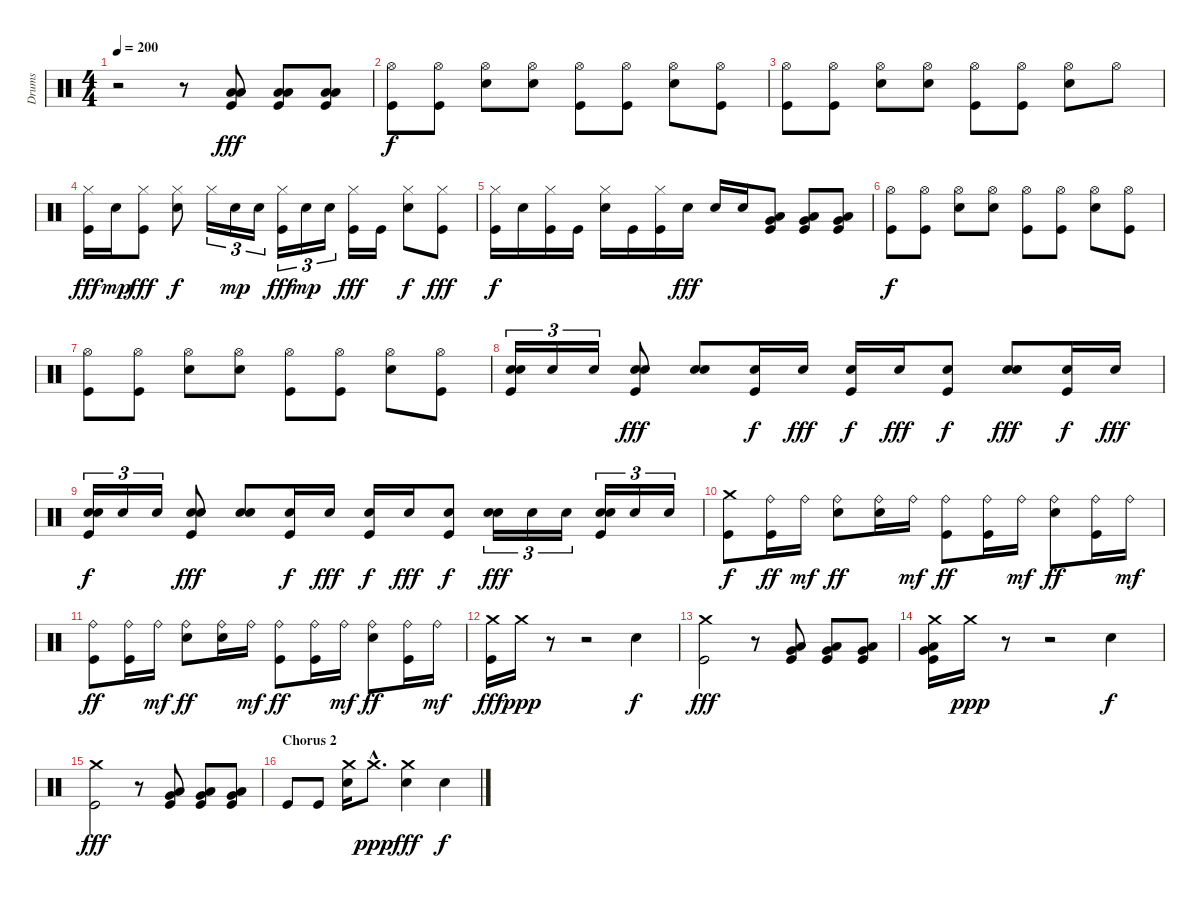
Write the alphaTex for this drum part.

\track ("Drums" "Drums") {instrument percussion}
\staff {score}
\articulation defaults
\ts (4 4)
\tempo 200
\clef neutral
\ks c
r.2{dy fff} r.8 ("Low Tom (hit)" "Low Floor Tom (hit)" "Kick (hit)").8 ("Low Tom (hit)" "Low Floor Tom (hit)" "Kick (hit)").8 ("Low Tom (hit)" "Low Floor Tom (hit)" "Kick (hit)").8 |
("Hi-Hat (open)" "Kick (hit)").8{dy f} ("Hi-Hat (open)" "Kick (hit)").8 ("Hi-Hat (open)" "Electric Snare (hit)").8 ("Hi-Hat (open)" "Electric Snare (hit)").8 ("Hi-Hat (open)" "Kick (hit)").8 ("Hi-Hat (open)" "Kick (hit)").8 ("Hi-Hat (open)" "Electric Snare (hit)").8 ("Hi-Hat (open)" "Kick (hit)").8 |
("Hi-Hat (open)" "Kick (hit)").8 ("Hi-Hat (open)" "Kick (hit)").8 ("Hi-Hat (open)" "Electric Snare (hit)").8 ("Hi-Hat (open)" "Electric Snare (hit)").8 ("Hi-Hat (open)" "Kick (hit)").8 ("Hi-Hat (open)" "Kick (hit)").8 ("Hi-Hat (open)" "Electric Snare (hit)").8 "Hi-Hat (open)".8 |
("Hi-Hat (closed)" "Kick (hit)").16{dy fff} "Electric Snare (hit)".16{dy mp} ("Hi-Hat (closed)" "Kick (hit)").8{dy fff} ("Hi-Hat (closed)" "Electric Snare (hit)").8{dy f} "Hi-Hat (closed)".16{tu (3 2)} "Electric Snare (hit)".16{tu (3 2) dy mp} "Electric Snare (hit)".16{tu (3 2)} ("Hi-Hat (closed)" "Kick (hit)").16{tu (3 2) dy fff} "Electric Snare (hit)".16{tu (3 2) dy mp} "Electric Snare (hit)".16{tu (3 2)} ("Hi-Hat (closed)" "Kick (hit)").16{dy fff} "Kick (hit)".16 ("Hi-Hat (closed)" "Electric Snare (hit)").8{dy f} ("Hi-Hat (closed)" "Kick (hit)").8{dy fff} |
("Hi-Hat (closed)" "Kick (hit)").16{dy f} "Electric Snare (hit)".16 ("Hi-Hat (closed)" "Kick (hit)").16 "Kick (hit)".16 ("Hi-Hat (closed)" "Electric Snare (hit)").16 "Kick (hit)".16 ("Hi-Hat (closed)" "Kick (hit)").16 "Electric Snare (hit)".16{dy fff} "Electric Snare (hit)".16 "Electric Snare (hit)".16 ("Low Tom (hit)" "Very Low Tom (hit)" "Kick (hit)").8 ("Low Tom (hit)" "Very Low Tom (hit)" "Kick (hit)").8 ("Low Tom (hit)" "Very Low Tom (hit)" "Kick (hit)").8 |
("Hi-Hat (open)" "Kick (hit)").8{dy f} ("Hi-Hat (open)" "Kick (hit)").8 ("Hi-Hat (open)" "Electric Snare (hit)").8 ("Hi-Hat (open)" "Electric Snare (hit)").8 ("Hi-Hat (open)" "Kick (hit)").8 ("Hi-Hat (open)" "Kick (hit)").8 ("Hi-Hat (open)" "Electric Snare (hit)").8 ("Hi-Hat (open)" "Kick (hit)").8 |
("Hi-Hat (open)" "Kick (hit)").8 ("Hi-Hat (open)" "Kick (hit)").8 ("Hi-Hat (open)" "Electric Snare (hit)").8 ("Hi-Hat (open)" "Electric Snare (hit)").8 ("Hi-Hat (open)" "Kick (hit)").8 ("Hi-Hat (open)" "Kick (hit)").8 ("Hi-Hat (open)" "Electric Snare (hit)").8 ("Hi-Hat (open)" "Kick (hit)").8 |
("Snare (hit) 2" "Electric Snare (hit)" "Kick (hit)").16{tu (3 2)} "Electric Snare (hit)".16{tu (3 2)} "Electric Snare (hit)".16{tu (3 2)} ("Snare (hit) 2" "Electric Snare (hit)" "Kick (hit)").8{dy fff} ("Snare (hit) 2" "Electric Snare (hit)").8 ("Snare (hit) 2" "Kick (hit)").16{dy f} "Electric Snare (hit)".16{dy fff} ("Snare (hit) 2" "Kick (hit)").16{dy f} "Electric Snare (hit)".16{dy fff} ("Snare (hit) 2" "Kick (hit)").8{dy f} ("Snare (hit) 2" "Electric Snare (hit)").8{dy fff} ("Snare (hit) 2" "Kick (hit)").16{dy f} "Electric Snare (hit)".16{dy fff} |
("Snare (hit) 2" "Electric Snare (hit)" "Kick (hit)").16{tu (3 2) dy f} "Electric Snare (hit)".16{tu (3 2)} "Electric Snare (hit)".16{tu (3 2)} ("Snare (hit) 2" "Electric Snare (hit)" "Kick (hit)").8{dy fff} ("Snare (hit) 2" "Electric Snare (hit)").8 ("Snare (hit) 2" "Kick (hit)").16{dy f} "Electric Snare (hit)".16{dy fff} ("Snare (hit) 2" "Kick (hit)").16{dy f} "Electric Snare (hit)".16{dy fff} ("Snare (hit) 2" "Kick (hit)").8{dy f} ("Snare (hit) 2" "Electric Snare (hit)").16{tu (3 2) dy fff} "Electric Snare (hit)".16{tu (3 2)} "Electric Snare (hit)".16{tu (3 2)} ("Snare (hit) 2" "Electric Snare (hit)" "Kick (hit)").16{tu (3 2)} "Electric Snare (hit)".16{tu (3 2)} "Electric Snare (hit)".16{tu (3 2)} |
("Crash medium (hit)" "Kick (hit)").8{dy f} ("Ride (bell)" "Kick (hit)").16{dy ff} "Ride (bell)".16{dy mf} ("Ride (bell)" "Electric Snare (hit)").8{dy ff} ("Ride (bell)" "Electric Snare (hit)").16 "Ride (bell)".16{dy mf} ("Ride (bell)" "Kick (hit)").8{dy ff} ("Ride (bell)" "Kick (hit)").16 "Ride (bell)".16{dy mf} ("Ride (bell)" "Electric Snare (hit)").8{dy ff} ("Ride (bell)" "Kick (hit)").16 "Ride (bell)".16{dy mf} |
("Ride (bell)" "Kick (hit)").8{dy ff} ("Ride (bell)" "Kick (hit)").16 "Ride (bell)".16{dy mf} ("Ride (bell)" "Electric Snare (hit)").8{dy ff} ("Ride (bell)" "Electric Snare (hit)").16 "Ride (bell)".16{dy mf} ("Ride (bell)" "Kick (hit)").8{dy ff} ("Ride (bell)" "Kick (hit)").16 "Ride (bell)".16{dy mf} ("Ride (bell)" "Electric Snare (hit)").8{dy ff} ("Ride (bell)" "Kick (hit)").16 "Ride (bell)".16{dy mf} |
("Crash medium (hit)" "Kick (hit)").16{dy fff} "Crash medium (hit)".16{dy ppp} r.8 r.2 "Electric Snare (hit)".4{dy f} |
("Crash medium (hit)" "Kick (hit)").2{dy fff} r.8 ("Low Tom (hit)" "Very Low Tom (hit)" "Kick (hit)").8 ("Low Tom (hit)" "Very Low Tom (hit)" "Kick (hit)").8 ("Low Tom (hit)" "Very Low Tom (hit)" "Kick (hit)").8 |
("Crash medium (hit)" "Low Tom (hit)" "Very Low Tom (hit)" "Kick (hit)").16 "Crash medium (hit)".16{dy ppp} r.8 r.2 "Electric Snare (hit)".4{dy f} |
("Crash medium (hit)" "Kick (hit)").2{dy fff} r.8 ("Low Tom (hit)" "Very Low Tom (hit)" "Kick (hit)").8 ("Low Tom (hit)" "Very Low Tom (hit)" "Kick (hit)").8 ("Low Tom (hit)" "Very Low Tom (hit)" "Kick (hit)").8 |
\section ("" "Chorus 2")
"Kick (hit)".8 "Kick (hit)".8 ("Crash medium (hit)" "Electric Snare (hit)").16 "Crash medium (hit)"{hac}.8{d dy ppp} ("Crash medium (hit)" "Electric Snare (hit)").4{dy fff} "Electric Snare (hit)".4{dy f}
